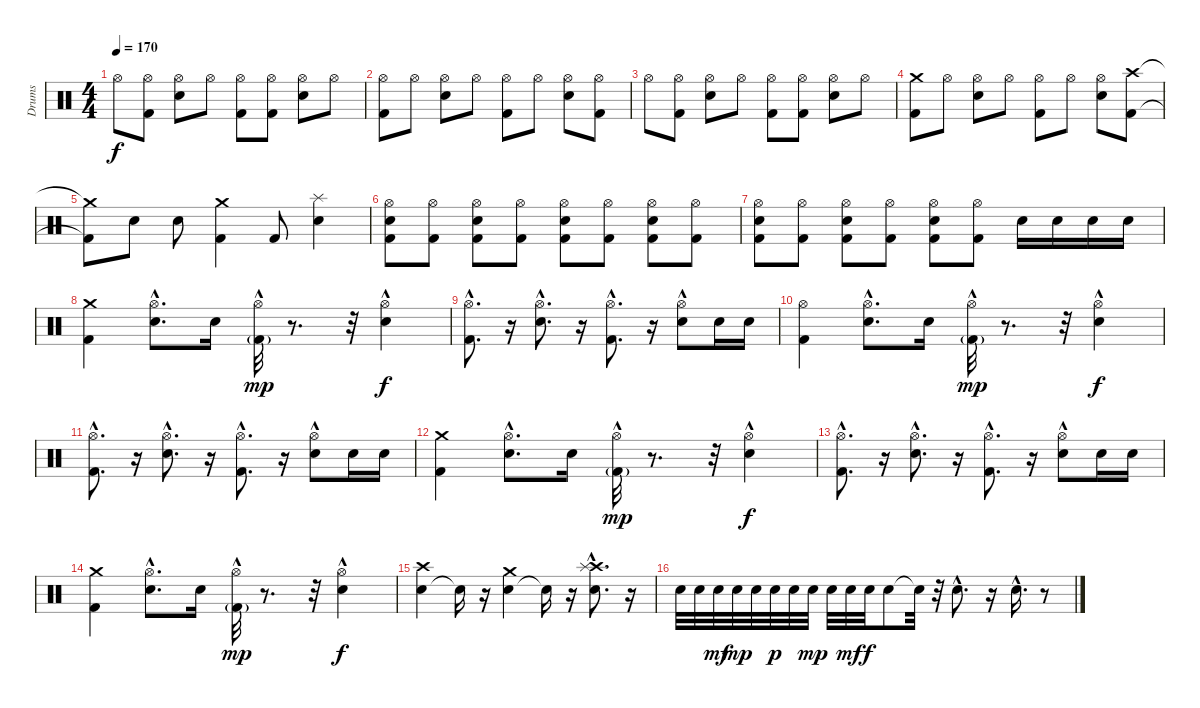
\track ("Drums" "Drums") {instrument percussion}
\staff {score}
\articulation defaults
\ts (4 4)
\tempo 170
\clef neutral
\ks c "Hi-Hat (open)".8{dy f}
("Kick (hit) 2" "Hi-Hat (open)").8 ("Electric Snare (hit)" "Hi-Hat (open)").8 "Hi-Hat (open)".8 ("Kick (hit) 2" "Hi-Hat (open)").8 ("Kick (hit) 2" "Hi-Hat (open)").8 ("Electric Snare (hit)" "Hi-Hat (open)").8 "Hi-Hat (open)".8 |
("Kick (hit) 2" "Hi-Hat (open)").8 "Hi-Hat (open)".8 ("Electric Snare (hit)" "Hi-Hat (open)").8 "Hi-Hat (open)".8 ("Kick (hit) 2" "Hi-Hat (open)").8 "Hi-Hat (open)".8 ("Electric Snare (hit)" "Hi-Hat (open)").8 ("Kick (hit) 2" "Hi-Hat (open)").8 |
"Hi-Hat (open)".8 ("Kick (hit) 2" "Hi-Hat (open)").8 ("Electric Snare (hit)" "Hi-Hat (open)").8 "Hi-Hat (open)".8 ("Kick (hit) 2" "Hi-Hat (open)").8 ("Kick (hit) 2" "Hi-Hat (open)").8 ("Electric Snare (hit)" "Hi-Hat (open)").8 "Hi-Hat (open)".8 |
("Kick (hit) 2" "Crash medium (hit)").8 "Hi-Hat (open)".8 ("Electric Snare (hit)" "Hi-Hat (open)").8 "Hi-Hat (open)".8 ("Kick (hit) 2" "Hi-Hat (open)").8 "Hi-Hat (open)".8 ("Electric Snare (hit)" "Hi-Hat (open)").8 ("Kick (hit) 2" "Crash high (hit)").8 |
("Kick (hit) 2"{t} "Crash medium (hit)"{t}).8 "Electric Snare (hit)".8 "Electric Snare (hit)".8 ("Kick (hit) 2" "Crash medium (hit)").4 "Kick (hit) 2".8 ("Electric Snare (hit)" "Splash (hit)").4 |
("Kick (hit) 2" "Electric Snare (hit)" "Hi-Hat (open)").8 ("Kick (hit) 2" "Hi-Hat (open)").8 ("Kick (hit) 2" "Electric Snare (hit)" "Hi-Hat (open)").8 ("Kick (hit) 2" "Hi-Hat (open)").8 ("Kick (hit) 2" "Electric Snare (hit)" "Hi-Hat (open)").8 ("Kick (hit) 2" "Hi-Hat (open)").8 ("Kick (hit) 2" "Electric Snare (hit)" "Hi-Hat (open)").8 ("Kick (hit) 2" "Hi-Hat (open)").8 |
("Kick (hit) 2" "Electric Snare (hit)" "Hi-Hat (open)").8 ("Kick (hit) 2" "Hi-Hat (open)").8 ("Kick (hit) 2" "Electric Snare (hit)" "Hi-Hat (open)").8 ("Kick (hit) 2" "Hi-Hat (open)").8 ("Kick (hit) 2" "Electric Snare (hit)" "Hi-Hat (open)").8 ("Kick (hit) 2" "Hi-Hat (open)").8 "Electric Snare (hit)".16 "Electric Snare (hit)".16 "Electric Snare (hit)".16 "Electric Snare (hit)".16 |
("Crash medium (hit)" "Kick (hit) 2").4 ("Hi-Hat (open)"{hac} "Electric Snare (hit)").8{d} "Electric Snare (hit)".16 ("Hi-Hat (open)"{hac} "Kick (hit) 2"{g}).32{dy mp} r.8{d} r.32 ("Hi-Hat (open)" "Electric Snare (hit)"{hac}).4{dy f} |
("Hi-Hat (open)"{hac} "Kick (hit) 2"{hac}).8{d} r.16 ("Hi-Hat (open)"{hac} "Electric Snare (hit)"{hac}).8{d} r.16 ("Hi-Hat (open)"{hac} "Kick (hit) 2"{hac}).8{d} r.16 ("Hi-Hat (open)"{hac} "Electric Snare (hit)"{hac}).8 "Electric Snare (hit)".16 "Electric Snare (hit)".16 |
("Hi-Hat (open)" "Kick (hit) 2").4 ("Hi-Hat (open)"{hac} "Electric Snare (hit)").8{d} "Electric Snare (hit)".16 ("Hi-Hat (open)"{hac} "Kick (hit) 2"{g}).32{dy mp} r.8{d} r.32 ("Hi-Hat (open)" "Electric Snare (hit)"{hac}).4{dy f} |
("Hi-Hat (open)"{hac} "Kick (hit) 2"{hac}).8{d} r.16 ("Hi-Hat (open)"{hac} "Electric Snare (hit)"{hac}).8{d} r.16 ("Hi-Hat (open)"{hac} "Kick (hit) 2"{hac}).8{d} r.16 ("Hi-Hat (open)"{hac} "Electric Snare (hit)"{hac}).8 "Electric Snare (hit)".16 "Electric Snare (hit)".16 |
("Crash medium (hit)" "Kick (hit) 2").4 ("Hi-Hat (open)"{hac} "Electric Snare (hit)").8{d} "Electric Snare (hit)".16 ("Hi-Hat (open)"{hac} "Kick (hit) 2"{g}).32{dy mp} r.8{d} r.32 ("Hi-Hat (open)" "Electric Snare (hit)"{hac}).4{dy f} |
("Hi-Hat (open)"{hac} "Kick (hit) 2"{hac}).8{d} r.16 ("Hi-Hat (open)"{hac} "Electric Snare (hit)"{hac}).8{d} r.16 ("Hi-Hat (open)"{hac} "Kick (hit) 2"{hac}).8{d} r.16 ("Hi-Hat (open)"{hac} "Electric Snare (hit)"{hac}).8 "Electric Snare (hit)".16 "Electric Snare (hit)".16 |
("Crash medium (hit)" "Kick (hit) 2").4 ("Hi-Hat (open)"{hac} "Electric Snare (hit)").8{d} "Electric Snare (hit)".16 ("Hi-Hat (open)"{hac} "Kick (hit) 2"{g}).32{dy mp} r.8{d} r.32 ("Hi-Hat (open)" "Electric Snare (hit)"{hac}).4{dy f} |
("Electric Snare (hit)" "Crash high (hit)").4 "Snare (hit)"{t}.16 r.16 ("Electric Snare (hit)" "Crash medium (hit)").4 "Snare (hit)"{t}.16 r.16 ("Electric Snare (hit)"{hac} "Crash high (hit)"{hac} "Splash (hit)"{hac}).8{d} r.16 |
"Electric Snare (hit)".32 "Electric Snare (hit)".32 "Electric Snare (hit)".32{dy mf} "Electric Snare (hit)".32{dy mp} "Electric Snare (hit)".32 "Electric Snare (hit)".32{dy p} "Electric Snare (hit)".32 "Electric Snare (hit)".32{dy mp} "Electric Snare (hit)".32 "Electric Snare (hit)".32{dy mf} "Electric Snare (hit)".32{dy f} "Electric Snare (hit)".8 "Snare (hit)"{t}.32 r.32 "Electric Snare (hit)"{hac}.8{d} r.16 "Electric Snare (hit)"{hac}.16{d} r.8
